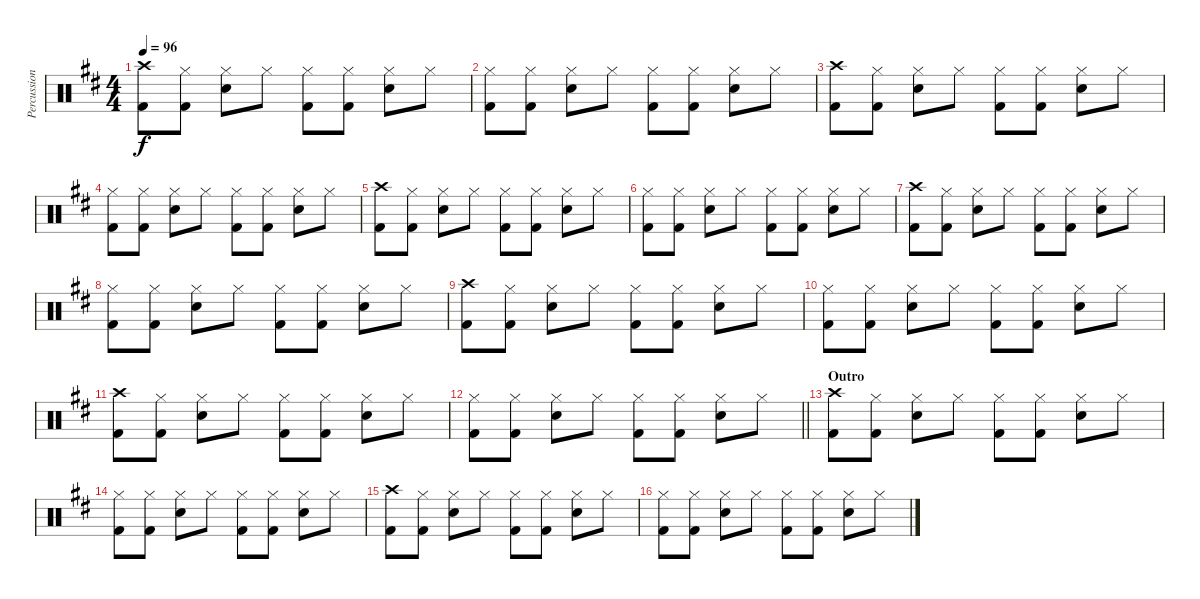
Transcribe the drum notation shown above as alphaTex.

\track ("Percussions" "Percussion") {instrument percussion}
\staff {score}
\articulation defaults
\ts (4 4)
\tempo 96
\clef neutral
\ks d
("Crash high (hit)" "Kick (hit) 2").8{dy f} ("Hi-Hat (closed)" "Kick (hit) 2").8 ("Hi-Hat (closed)" "Snare (hit) 2").8 "Hi-Hat (closed)".8 ("Hi-Hat (closed)" "Kick (hit) 2").8 ("Hi-Hat (closed)" "Kick (hit) 2").8 ("Hi-Hat (closed)" "Snare (hit) 2").8 "Hi-Hat (closed)".8 |
("Hi-Hat (closed)" "Kick (hit) 2").8 ("Hi-Hat (closed)" "Kick (hit) 2").8 ("Hi-Hat (closed)" "Snare (hit) 2").8 "Hi-Hat (closed)".8 ("Hi-Hat (closed)" "Kick (hit) 2").8 ("Hi-Hat (closed)" "Kick (hit) 2").8 ("Hi-Hat (closed)" "Snare (hit) 2").8 "Hi-Hat (closed)".8 |
("Crash high (hit)" "Kick (hit) 2").8 ("Hi-Hat (closed)" "Kick (hit) 2").8 ("Hi-Hat (closed)" "Snare (hit) 2").8 "Hi-Hat (closed)".8 ("Hi-Hat (closed)" "Kick (hit) 2").8 ("Hi-Hat (closed)" "Kick (hit) 2").8 ("Hi-Hat (closed)" "Snare (hit) 2").8 "Hi-Hat (closed)".8 |
("Hi-Hat (closed)" "Kick (hit) 2").8 ("Hi-Hat (closed)" "Kick (hit) 2").8 ("Hi-Hat (closed)" "Snare (hit) 2").8 "Hi-Hat (closed)".8 ("Hi-Hat (closed)" "Kick (hit) 2").8 ("Hi-Hat (closed)" "Kick (hit) 2").8 ("Hi-Hat (closed)" "Snare (hit) 2").8 "Hi-Hat (closed)".8 |
("Crash high (hit)" "Kick (hit) 2").8 ("Hi-Hat (closed)" "Kick (hit) 2").8 ("Hi-Hat (closed)" "Snare (hit) 2").8 "Hi-Hat (closed)".8 ("Hi-Hat (closed)" "Kick (hit) 2").8 ("Hi-Hat (closed)" "Kick (hit) 2").8 ("Hi-Hat (closed)" "Snare (hit) 2").8 "Hi-Hat (closed)".8 |
("Hi-Hat (closed)" "Kick (hit) 2").8 ("Hi-Hat (closed)" "Kick (hit) 2").8 ("Hi-Hat (closed)" "Snare (hit) 2").8 "Hi-Hat (closed)".8 ("Hi-Hat (closed)" "Kick (hit) 2").8 ("Hi-Hat (closed)" "Kick (hit) 2").8 ("Hi-Hat (closed)" "Snare (hit) 2").8 "Hi-Hat (closed)".8 |
("Crash high (hit)" "Kick (hit) 2").8 ("Hi-Hat (closed)" "Kick (hit) 2").8 ("Hi-Hat (closed)" "Snare (hit) 2").8 "Hi-Hat (closed)".8 ("Hi-Hat (closed)" "Kick (hit) 2").8 ("Hi-Hat (closed)" "Kick (hit) 2").8 ("Hi-Hat (closed)" "Snare (hit) 2").8 "Hi-Hat (closed)".8 |
("Hi-Hat (closed)" "Kick (hit) 2").8 ("Hi-Hat (closed)" "Kick (hit) 2").8 ("Hi-Hat (closed)" "Snare (hit) 2").8 "Hi-Hat (closed)".8 ("Hi-Hat (closed)" "Kick (hit) 2").8 ("Hi-Hat (closed)" "Kick (hit) 2").8 ("Hi-Hat (closed)" "Snare (hit) 2").8 "Hi-Hat (closed)".8 |
("Crash high (hit)" "Kick (hit) 2").8 ("Hi-Hat (closed)" "Kick (hit) 2").8 ("Hi-Hat (closed)" "Snare (hit) 2").8 "Hi-Hat (closed)".8 ("Hi-Hat (closed)" "Kick (hit) 2").8 ("Hi-Hat (closed)" "Kick (hit) 2").8 ("Hi-Hat (closed)" "Snare (hit) 2").8 "Hi-Hat (closed)".8 |
("Hi-Hat (closed)" "Kick (hit) 2").8 ("Hi-Hat (closed)" "Kick (hit) 2").8 ("Hi-Hat (closed)" "Snare (hit) 2").8 "Hi-Hat (closed)".8 ("Hi-Hat (closed)" "Kick (hit) 2").8 ("Hi-Hat (closed)" "Kick (hit) 2").8 ("Hi-Hat (closed)" "Snare (hit) 2").8 "Hi-Hat (closed)".8 |
("Crash high (hit)" "Kick (hit) 2").8 ("Hi-Hat (closed)" "Kick (hit) 2").8 ("Hi-Hat (closed)" "Snare (hit) 2").8 "Hi-Hat (closed)".8 ("Hi-Hat (closed)" "Kick (hit) 2").8 ("Hi-Hat (closed)" "Kick (hit) 2").8 ("Hi-Hat (closed)" "Snare (hit) 2").8 "Hi-Hat (closed)".8 |
\barLineRight lightlight
("Hi-Hat (closed)" "Kick (hit) 2").8 ("Hi-Hat (closed)" "Kick (hit) 2").8 ("Hi-Hat (closed)" "Snare (hit) 2").8 "Hi-Hat (closed)".8 ("Hi-Hat (closed)" "Kick (hit) 2").8 ("Hi-Hat (closed)" "Kick (hit) 2").8 ("Hi-Hat (closed)" "Snare (hit) 2").8 "Hi-Hat (closed)".8 |
\section ("" "Outro")
("Crash high (hit)" "Kick (hit) 2").8 ("Hi-Hat (closed)" "Kick (hit) 2").8 ("Hi-Hat (closed)" "Snare (hit) 2").8 "Hi-Hat (closed)".8 ("Hi-Hat (closed)" "Kick (hit) 2").8 ("Hi-Hat (closed)" "Kick (hit) 2").8 ("Hi-Hat (closed)" "Snare (hit) 2").8 "Hi-Hat (closed)".8 |
("Hi-Hat (closed)" "Kick (hit) 2").8 ("Hi-Hat (closed)" "Kick (hit) 2").8 ("Hi-Hat (closed)" "Snare (hit) 2").8 "Hi-Hat (closed)".8 ("Hi-Hat (closed)" "Kick (hit) 2").8 ("Hi-Hat (closed)" "Kick (hit) 2").8 ("Hi-Hat (closed)" "Snare (hit) 2").8 "Hi-Hat (closed)".8 |
("Crash high (hit)" "Kick (hit) 2").8 ("Hi-Hat (closed)" "Kick (hit) 2").8 ("Hi-Hat (closed)" "Snare (hit) 2").8 "Hi-Hat (closed)".8 ("Hi-Hat (closed)" "Kick (hit) 2").8 ("Hi-Hat (closed)" "Kick (hit) 2").8 ("Hi-Hat (closed)" "Snare (hit) 2").8 "Hi-Hat (closed)".8 |
("Hi-Hat (closed)" "Kick (hit) 2").8 ("Hi-Hat (closed)" "Kick (hit) 2").8 ("Hi-Hat (closed)" "Snare (hit) 2").8 "Hi-Hat (closed)".8 ("Hi-Hat (closed)" "Kick (hit) 2").8 ("Hi-Hat (closed)" "Kick (hit) 2").8 ("Hi-Hat (closed)" "Snare (hit) 2").8 "Hi-Hat (closed)".8
